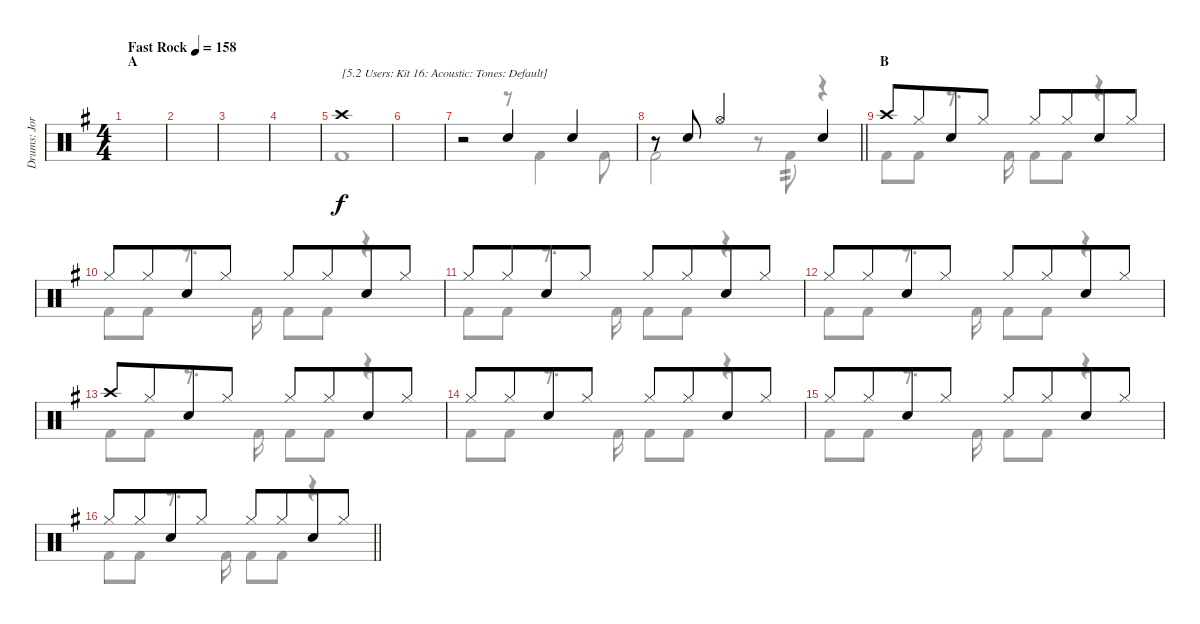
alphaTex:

\track ("Drums: Jorg" "Drums: Jor") {instrument percussion}
\staff {score}
\articulation defaults
\voice
\ts (4 4)
\section ("" "A")
\tempo (158 "Fast Rock")
\clef neutral
\ks g
|
|
|
|
"Crash high (hit)".1{txt "[5.2 Users: Kit 16: Acoustic: Tones: Default]"} |
|
r.2 "Snare (hit) 2".4 "Snare (hit) 2".4 |
\barLineRight lightlight
r.8 "Snare (hit) 2".8 "Hi-Hat (open)".2 "Snare (hit) 2".4 |
\section ("" "B")
"Crash high (hit)".8 "Hi-Hat (closed)".8{beam merge} "Snare (hit) 2".8 "Hi-Hat (closed)".8 "Hi-Hat (closed)".8 "Hi-Hat (closed)".8{beam merge} "Snare (hit) 2".8 "Hi-Hat (closed)".8 |
"Hi-Hat (closed)".8 "Hi-Hat (closed)".8{beam merge} "Snare (hit) 2".8 "Hi-Hat (closed)".8 "Hi-Hat (closed)".8 "Hi-Hat (closed)".8{beam merge} "Snare (hit) 2".8 "Hi-Hat (closed)".8 |
"Hi-Hat (closed)".8 "Hi-Hat (closed)".8{beam merge} "Snare (hit) 2".8 "Hi-Hat (closed)".8 "Hi-Hat (closed)".8 "Hi-Hat (closed)".8{beam merge} "Snare (hit) 2".8 "Hi-Hat (closed)".8 |
"Hi-Hat (closed)".8 "Hi-Hat (closed)".8{beam merge} "Snare (hit) 2".8 "Hi-Hat (closed)".8 "Hi-Hat (closed)".8 "Hi-Hat (closed)".8{beam merge} "Snare (hit) 2".8 "Hi-Hat (closed)".8 |
"Crash high (hit)".8 "Hi-Hat (closed)".8{beam merge} "Snare (hit) 2".8 "Hi-Hat (closed)".8 "Hi-Hat (closed)".8 "Hi-Hat (closed)".8{beam merge} "Snare (hit) 2".8 "Hi-Hat (closed)".8 |
"Hi-Hat (closed)".8 "Hi-Hat (closed)".8{beam merge} "Snare (hit) 2".8 "Hi-Hat (closed)".8 "Hi-Hat (closed)".8 "Hi-Hat (closed)".8{beam merge} "Snare (hit) 2".8 "Hi-Hat (closed)".8 |
"Hi-Hat (closed)".8 "Hi-Hat (closed)".8{beam merge} "Snare (hit) 2".8 "Hi-Hat (closed)".8 "Hi-Hat (closed)".8 "Hi-Hat (closed)".8{beam merge} "Snare (hit) 2".8 "Hi-Hat (closed)".8 |
\barLineRight lightlight "Hi-Hat (closed)".8 "Hi-Hat (closed)".8{beam merge} "Snare (hit) 2".8 "Hi-Hat (closed)".8 "Hi-Hat (closed)".8 "Hi-Hat (closed)".8{beam merge} "Snare (hit) 2".8 "Hi-Hat (closed)".8
\voice
\clef neutral
\ottava regular
\simile none
\ks g
|
|
|
|
"Kick (hit) 2".1 |
|
r.2 r.8 "Kick (hit) 2".4 "Kick (hit) 2".8 |
\barLineRight lightlight "Kick (hit) 2".2
r.8 "Kick (hit) 2".8{tp 2} r.4 |
"Kick (hit) 2".8 "Kick (hit) 2".8 r.8{d} "Kick (hit) 2".16 "Kick (hit) 2".8 "Kick (hit) 2".8 r.4 |
"Kick (hit) 2".8 "Kick (hit) 2".8 r.8{d} "Kick (hit) 2".16 "Kick (hit) 2".8 "Kick (hit) 2".8 r.4 |
"Kick (hit) 2".8 "Kick (hit) 2".8 r.8{d} "Kick (hit) 2".16 "Kick (hit) 2".8 "Kick (hit) 2".8 r.4 |
"Kick (hit) 2".8 "Kick (hit) 2".8 r.8{d} "Kick (hit) 2".16 "Kick (hit) 2".8 "Kick (hit) 2".8 r.4 |
"Kick (hit) 2".8 "Kick (hit) 2".8 r.8{d} "Kick (hit) 2".16 "Kick (hit) 2".8 "Kick (hit) 2".8 r.4 |
"Kick (hit) 2".8 "Kick (hit) 2".8 r.8{d} "Kick (hit) 2".16 "Kick (hit) 2".8 "Kick (hit) 2".8 r.4 |
"Kick (hit) 2".8 "Kick (hit) 2".8 r.8{d} "Kick (hit) 2".16 "Kick (hit) 2".8 "Kick (hit) 2".8 r.4 |
\barLineRight lightlight "Kick (hit) 2".8 "Kick (hit) 2".8
r.8{d} "Kick (hit) 2".16 "Kick (hit) 2".8 "Kick (hit) 2".8 r.4
